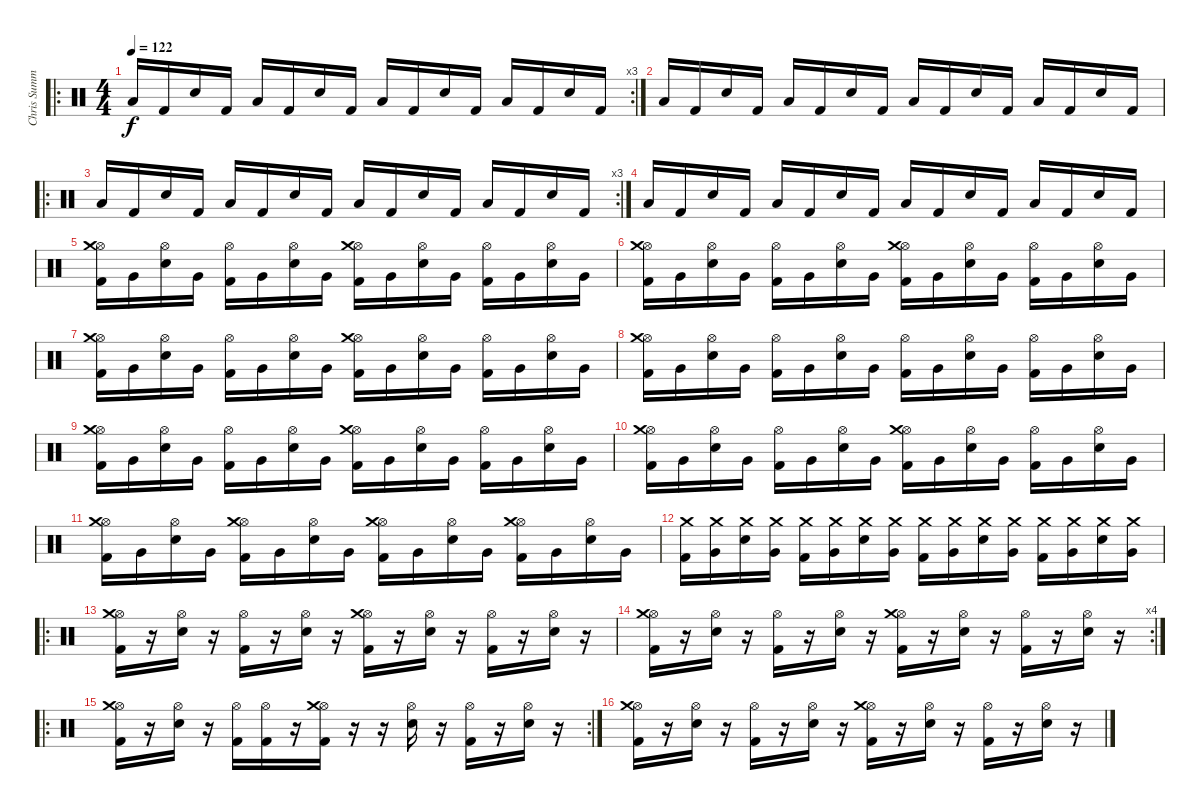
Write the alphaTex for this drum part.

\track ("Chris Summers" "Chris Summ") {instrument percussion}
\staff {score}
\articulation defaults
\ro
\rc 3
\ts (4 4)
\tempo 122
\clef neutral
\ks c "Low Tom (hit)".16{dy f} "Kick (hit) 2".16 "Electric Snare (hit)".16 "Kick (hit) 2".16 "Low Tom (hit)".16 "Kick (hit) 2".16 "Electric Snare (hit)".16 "Kick (hit) 2".16 "Low Tom (hit)".16 "Kick (hit) 2".16 "Electric Snare (hit)".16 "Kick (hit) 2".16 "Low Tom (hit)".16 "Kick (hit) 2".16 "Electric Snare (hit)".16 "Kick (hit) 2".16
|
"Low Tom (hit)".16 "Kick (hit) 2".16 "Electric Snare (hit)".16 "Kick (hit) 2".16 "Low Tom (hit)".16 "Kick (hit) 2".16 "Electric Snare (hit)".16 "Kick (hit) 2".16 "Low Tom (hit)".16 "Kick (hit) 2".16 "Electric Snare (hit)".16 "Kick (hit) 2".16 "Low Tom (hit)".16 "Kick (hit) 2".16 "Electric Snare (hit)".16 "Kick (hit) 2".16 |
\ro
\rc 3 "Low Tom (hit)".16 "Kick (hit) 2".16 "Electric Snare (hit)".16 "Kick (hit) 2".16 "Low Tom (hit)".16 "Kick (hit) 2".16 "Electric Snare (hit)".16 "Kick (hit) 2".16 "Low Tom (hit)".16 "Kick (hit) 2".16 "Electric Snare (hit)".16 "Kick (hit) 2".16 "Low Tom (hit)".16 "Kick (hit) 2".16 "Electric Snare (hit)".16 "Kick (hit) 2".16
|
"Low Tom (hit)".16 "Kick (hit) 2".16 "Electric Snare (hit)".16 "Kick (hit) 2".16 "Low Tom (hit)".16 "Kick (hit) 2".16 "Electric Snare (hit)".16 "Kick (hit) 2".16 "Low Tom (hit)".16 "Kick (hit) 2".16 "Electric Snare (hit)".16 "Kick (hit) 2".16 "Low Tom (hit)".16 "Kick (hit) 2".16 "Electric Snare (hit)".16 "Kick (hit) 2".16 |
("Kick (hit) 2" "Hi-Hat (open)" "Crash medium (hit)").16 "Very Low Tom (hit)".16 ("Electric Snare (hit)" "Hi-Hat (open)").16 "Very Low Tom (hit)".16 ("Kick (hit) 2" "Hi-Hat (open)").16 "Very Low Tom (hit)".16 ("Electric Snare (hit)" "Hi-Hat (open)").16 "Very Low Tom (hit)".16 ("Kick (hit) 2" "Hi-Hat (open)" "Crash medium (hit)").16 "Very Low Tom (hit)".16 ("Electric Snare (hit)" "Hi-Hat (open)").16 "Very Low Tom (hit)".16 ("Kick (hit) 2" "Hi-Hat (open)").16 "Very Low Tom (hit)".16 ("Electric Snare (hit)" "Hi-Hat (open)").16 "Very Low Tom (hit)".16 |
("Kick (hit) 2" "Hi-Hat (open)" "Crash medium (hit)").16 "Very Low Tom (hit)".16 ("Electric Snare (hit)" "Hi-Hat (open)").16 "Very Low Tom (hit)".16 ("Kick (hit) 2" "Hi-Hat (open)").16 "Very Low Tom (hit)".16 ("Electric Snare (hit)" "Hi-Hat (open)").16 "Very Low Tom (hit)".16 ("Kick (hit) 2" "Hi-Hat (open)" "Crash medium (hit)").16 "Very Low Tom (hit)".16 ("Electric Snare (hit)" "Hi-Hat (open)").16 "Very Low Tom (hit)".16 ("Kick (hit) 2" "Hi-Hat (open)").16 "Very Low Tom (hit)".16 ("Electric Snare (hit)" "Hi-Hat (open)").16 "Very Low Tom (hit)".16 |
("Kick (hit) 2" "Hi-Hat (open)" "Crash medium (hit)").16 "Very Low Tom (hit)".16 ("Electric Snare (hit)" "Hi-Hat (open)").16 "Very Low Tom (hit)".16 ("Kick (hit) 2" "Hi-Hat (open)").16 "Very Low Tom (hit)".16 ("Electric Snare (hit)" "Hi-Hat (open)").16 "Very Low Tom (hit)".16 ("Kick (hit) 2" "Hi-Hat (open)" "Crash medium (hit)").16 "Very Low Tom (hit)".16 ("Electric Snare (hit)" "Hi-Hat (open)").16 "Very Low Tom (hit)".16 ("Kick (hit) 2" "Hi-Hat (open)").16 "Very Low Tom (hit)".16 ("Electric Snare (hit)" "Hi-Hat (open)").16 "Very Low Tom (hit)".16 |
("Kick (hit) 2" "Hi-Hat (open)" "Crash medium (hit)").16 "Very Low Tom (hit)".16 ("Electric Snare (hit)" "Hi-Hat (open)").16 "Very Low Tom (hit)".16 ("Kick (hit) 2" "Hi-Hat (open)").16 "Very Low Tom (hit)".16 ("Electric Snare (hit)" "Hi-Hat (open)").16 "Very Low Tom (hit)".16 ("Kick (hit) 2" "Hi-Hat (open)").16 "Very Low Tom (hit)".16 ("Electric Snare (hit)" "Hi-Hat (open)").16 "Very Low Tom (hit)".16 ("Kick (hit) 2" "Hi-Hat (open)").16 "Very Low Tom (hit)".16 ("Electric Snare (hit)" "Hi-Hat (open)").16 "Very Low Tom (hit)".16 |
("Kick (hit) 2" "Hi-Hat (open)" "Crash medium (hit)").16 "Very Low Tom (hit)".16 ("Electric Snare (hit)" "Hi-Hat (open)").16 "Very Low Tom (hit)".16 ("Kick (hit) 2" "Hi-Hat (open)").16 "Very Low Tom (hit)".16 ("Electric Snare (hit)" "Hi-Hat (open)").16 "Very Low Tom (hit)".16 ("Kick (hit) 2" "Hi-Hat (open)" "Crash medium (hit)").16 "Very Low Tom (hit)".16 ("Electric Snare (hit)" "Hi-Hat (open)").16 "Very Low Tom (hit)".16 ("Kick (hit) 2" "Hi-Hat (open)").16 "Very Low Tom (hit)".16 ("Electric Snare (hit)" "Hi-Hat (open)").16 "Very Low Tom (hit)".16 |
("Kick (hit) 2" "Hi-Hat (open)" "Crash medium (hit)").16 "Very Low Tom (hit)".16 ("Electric Snare (hit)" "Hi-Hat (open)").16 "Very Low Tom (hit)".16 ("Kick (hit) 2" "Hi-Hat (open)").16 "Very Low Tom (hit)".16 ("Electric Snare (hit)" "Hi-Hat (open)").16 "Very Low Tom (hit)".16 ("Kick (hit) 2" "Hi-Hat (open)" "Crash medium (hit)").16 "Very Low Tom (hit)".16 ("Electric Snare (hit)" "Hi-Hat (open)").16 "Very Low Tom (hit)".16 ("Kick (hit) 2" "Hi-Hat (open)").16 "Very Low Tom (hit)".16 ("Electric Snare (hit)" "Hi-Hat (open)").16 "Very Low Tom (hit)".16 |
("Kick (hit) 2" "Hi-Hat (open)" "Crash medium (hit)").16 "Very Low Tom (hit)".16 ("Electric Snare (hit)" "Hi-Hat (open)").16 "Very Low Tom (hit)".16 ("Kick (hit) 2" "Hi-Hat (open)" "Crash medium (hit)").16 "Very Low Tom (hit)".16 ("Electric Snare (hit)" "Hi-Hat (open)").16 "Very Low Tom (hit)".16 ("Kick (hit) 2" "Hi-Hat (open)" "Crash medium (hit)").16 "Very Low Tom (hit)".16 ("Electric Snare (hit)" "Hi-Hat (open)").16 "Very Low Tom (hit)".16 ("Kick (hit) 2" "Hi-Hat (open)" "Crash medium (hit)").16 "Very Low Tom (hit)".16 ("Electric Snare (hit)" "Hi-Hat (open)").16 "Very Low Tom (hit)".16 |
("Kick (hit) 2" "Crash medium (hit)").16 ("Very Low Tom (hit)" "Crash medium (hit)").16 ("Electric Snare (hit)" "Crash medium (hit)").16 ("Very Low Tom (hit)" "Crash medium (hit)").16 ("Kick (hit) 2" "Crash medium (hit)").16 ("Very Low Tom (hit)" "Crash medium (hit)").16 ("Electric Snare (hit)" "Crash medium (hit)").16 ("Very Low Tom (hit)" "Crash medium (hit)").16 ("Kick (hit) 2" "Crash medium (hit)").16 ("Very Low Tom (hit)" "Crash medium (hit)").16 ("Electric Snare (hit)" "Crash medium (hit)").16 ("Very Low Tom (hit)" "Crash medium (hit)").16 ("Kick (hit) 2" "Crash medium (hit)").16 ("Very Low Tom (hit)" "Crash medium (hit)").16 ("Electric Snare (hit)" "Crash medium (hit)").16 ("Very Low Tom (hit)" "Crash medium (hit)").16 |
\ro
("Kick (hit) 2" "Hi-Hat (open)" "Crash medium (hit)").16 r.16 ("Electric Snare (hit)" "Hi-Hat (open)").16 r.16 ("Kick (hit) 2" "Hi-Hat (open)").16 r.16 ("Electric Snare (hit)" "Hi-Hat (open)").16 r.16 ("Kick (hit) 2" "Hi-Hat (open)" "Crash medium (hit)").16 r.16 ("Electric Snare (hit)" "Hi-Hat (open)").16 r.16 ("Kick (hit) 2" "Hi-Hat (open)").16 r.16 ("Electric Snare (hit)" "Hi-Hat (open)").16 r.16 |
\rc 4
("Kick (hit) 2" "Hi-Hat (open)" "Crash medium (hit)").16 r.16 ("Electric Snare (hit)" "Hi-Hat (open)").16 r.16 ("Kick (hit) 2" "Hi-Hat (open)").16 r.16 ("Electric Snare (hit)" "Hi-Hat (open)").16 r.16 ("Kick (hit) 2" "Hi-Hat (open)" "Crash medium (hit)").16 r.16 ("Electric Snare (hit)" "Hi-Hat (open)").16 r.16 ("Kick (hit) 2" "Hi-Hat (open)").16 r.16 ("Electric Snare (hit)" "Hi-Hat (open)").16 r.16 |
\ro
\rc 2
("Kick (hit) 2" "Hi-Hat (open)" "Crash medium (hit)").16 r.16 ("Electric Snare (hit)" "Hi-Hat (open)").16 r.16 ("Kick (hit) 2" "Hi-Hat (open)").16 ("Kick (hit) 2" "Hi-Hat (open)").16 r.16 ("Kick (hit) 2" "Hi-Hat (open)" "Crash medium (hit)").16 r.16 r.16 ("Electric Snare (hit)" "Hi-Hat (open)").16 r.16 ("Kick (hit) 2" "Hi-Hat (open)").16 r.16 ("Electric Snare (hit)" "Hi-Hat (open)").16 r.16 |
("Kick (hit) 2" "Hi-Hat (open)" "Crash medium (hit)").16 r.16 ("Electric Snare (hit)" "Hi-Hat (open)").16 r.16 ("Kick (hit) 2" "Hi-Hat (open)").16 r.16 ("Electric Snare (hit)" "Hi-Hat (open)").16 r.16 ("Kick (hit) 2" "Hi-Hat (open)" "Crash medium (hit)").16 r.16 ("Electric Snare (hit)" "Hi-Hat (open)").16 r.16 ("Kick (hit) 2" "Hi-Hat (open)").16 r.16 ("Electric Snare (hit)" "Hi-Hat (open)").16 r.16
